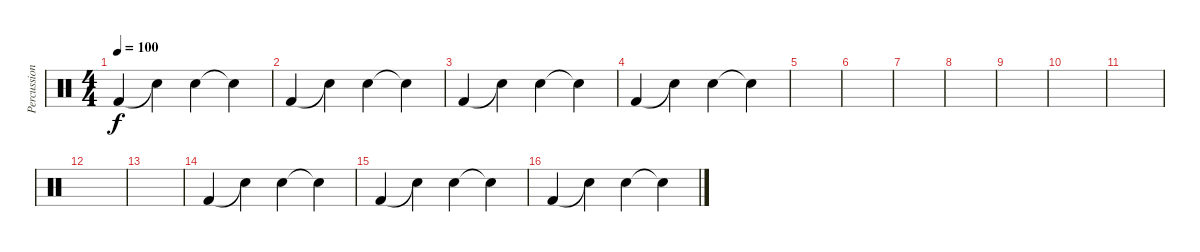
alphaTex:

\track ("Percussioni" "Percussion") {instrument percussion}
\staff {score}
\articulation defaults
\ts (4 4)
\tempo 100
\clef neutral
\ks c "Kick (hit) 2".4{dy f} "Snare (hit)"{t}.4 "Snare (hit) 2".4 "Snare (hit)"{t}.4
|
"Kick (hit) 2".4 "Snare (hit)"{t}.4 "Snare (hit) 2".4 "Snare (hit)"{t}.4 |
"Kick (hit) 2".4 "Snare (hit)"{t}.4 "Snare (hit) 2".4 "Snare (hit)"{t}.4 |
"Kick (hit) 2".4 "Snare (hit)"{t}.4 "Snare (hit) 2".4 "Snare (hit)"{t}.4 |
|
|
|
|
|
|
|
|
|
"Kick (hit) 2".4 "Snare (hit)"{t}.4 "Snare (hit) 2".4 "Snare (hit)"{t}.4 |
"Kick (hit) 2".4 "Snare (hit)"{t}.4 "Snare (hit) 2".4 "Snare (hit)"{t}.4 |
"Kick (hit) 2".4 "Snare (hit)"{t}.4 "Snare (hit) 2".4 "Snare (hit)"{t}.4
